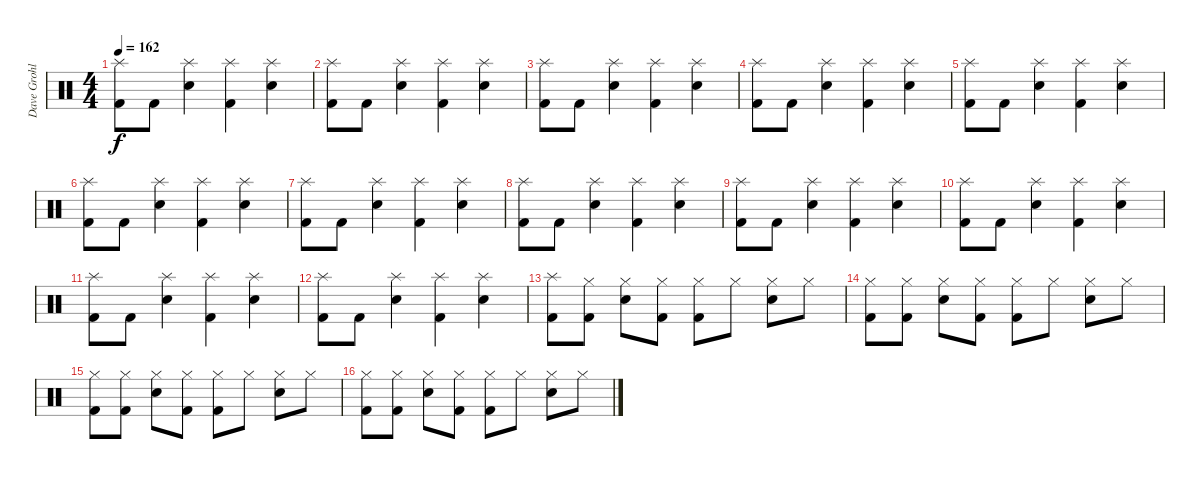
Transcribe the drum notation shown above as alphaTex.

\track ("Dave Grohl : Drums" "Dave Grohl") {instrument percussion}
\staff {score}
\articulation defaults
\ts (4 4)
\tempo 162
\clef neutral
\ks c
("Splash (hit)" "Kick (hit) 2").8{dy f} "Kick (hit) 2".8 ("Splash (hit)" "Snare (hit) 2").4 ("Splash (hit)" "Kick (hit) 2").4 ("Splash (hit)" "Snare (hit) 2").4 |
("Splash (hit)" "Kick (hit) 2").8 "Kick (hit) 2".8 ("Splash (hit)" "Snare (hit) 2").4 ("Splash (hit)" "Kick (hit) 2").4 ("Splash (hit)" "Snare (hit) 2").4 |
("Splash (hit)" "Kick (hit) 2").8 "Kick (hit) 2".8 ("Splash (hit)" "Snare (hit) 2").4 ("Splash (hit)" "Kick (hit) 2").4 ("Splash (hit)" "Snare (hit) 2").4 |
("Splash (hit)" "Kick (hit) 2").8 "Kick (hit) 2".8 ("Splash (hit)" "Snare (hit) 2").4 ("Splash (hit)" "Kick (hit) 2").4 ("Splash (hit)" "Snare (hit) 2").4 |
("Splash (hit)" "Kick (hit) 2").8 "Kick (hit) 2".8 ("Splash (hit)" "Snare (hit) 2").4 ("Splash (hit)" "Kick (hit) 2").4 ("Splash (hit)" "Snare (hit) 2").4 |
("Splash (hit)" "Kick (hit) 2").8 "Kick (hit) 2".8 ("Splash (hit)" "Snare (hit) 2").4 ("Splash (hit)" "Kick (hit) 2").4 ("Splash (hit)" "Snare (hit) 2").4 |
("Splash (hit)" "Kick (hit) 2").8 "Kick (hit) 2".8 ("Splash (hit)" "Snare (hit) 2").4 ("Splash (hit)" "Kick (hit) 2").4 ("Splash (hit)" "Snare (hit) 2").4 |
("Splash (hit)" "Kick (hit) 2").8 "Kick (hit) 2".8 ("Splash (hit)" "Snare (hit) 2").4 ("Splash (hit)" "Kick (hit) 2").4 ("Splash (hit)" "Snare (hit) 2").4 |
("Splash (hit)" "Kick (hit) 2").8 "Kick (hit) 2".8 ("Splash (hit)" "Snare (hit) 2").4 ("Splash (hit)" "Kick (hit) 2").4 ("Splash (hit)" "Snare (hit) 2").4 |
("Splash (hit)" "Kick (hit) 2").8 "Kick (hit) 2".8 ("Splash (hit)" "Snare (hit) 2").4 ("Splash (hit)" "Kick (hit) 2").4 ("Splash (hit)" "Snare (hit) 2").4 |
("Splash (hit)" "Kick (hit) 2").8 "Kick (hit) 2".8 ("Splash (hit)" "Snare (hit) 2").4 ("Splash (hit)" "Kick (hit) 2").4 ("Splash (hit)" "Snare (hit) 2").4 |
("Splash (hit)" "Kick (hit) 2").8 "Kick (hit) 2".8 ("Splash (hit)" "Snare (hit) 2").4 ("Splash (hit)" "Kick (hit) 2").4 ("Splash (hit)" "Snare (hit) 2").4 |
("Splash (hit)" "Kick (hit) 2").8 ("Hi-Hat (closed)" "Kick (hit) 2").8 ("Hi-Hat (closed)" "Snare (hit) 2").8 ("Hi-Hat (closed)" "Kick (hit) 2").8 ("Hi-Hat (closed)" "Kick (hit) 2").8 "Hi-Hat (closed)".8 ("Hi-Hat (closed)" "Snare (hit) 2").8 "Hi-Hat (closed)".8 |
("Hi-Hat (closed)" "Kick (hit) 2").8 ("Hi-Hat (closed)" "Kick (hit) 2").8 ("Hi-Hat (closed)" "Snare (hit) 2").8 ("Hi-Hat (closed)" "Kick (hit) 2").8 ("Hi-Hat (closed)" "Kick (hit) 2").8 "Hi-Hat (closed)".8 ("Hi-Hat (closed)" "Snare (hit) 2").8 "Hi-Hat (closed)".8 |
("Hi-Hat (closed)" "Kick (hit) 2").8 ("Hi-Hat (closed)" "Kick (hit) 2").8 ("Hi-Hat (closed)" "Snare (hit) 2").8 ("Hi-Hat (closed)" "Kick (hit) 2").8 ("Hi-Hat (closed)" "Kick (hit) 2").8 "Hi-Hat (closed)".8 ("Hi-Hat (closed)" "Snare (hit) 2").8 "Hi-Hat (closed)".8 |
("Hi-Hat (closed)" "Kick (hit) 2").8 ("Hi-Hat (closed)" "Kick (hit) 2").8 ("Hi-Hat (closed)" "Snare (hit) 2").8 ("Hi-Hat (closed)" "Kick (hit) 2").8 ("Hi-Hat (closed)" "Kick (hit) 2").8 "Hi-Hat (closed)".8 ("Hi-Hat (closed)" "Snare (hit) 2").8 "Hi-Hat (closed)".8
